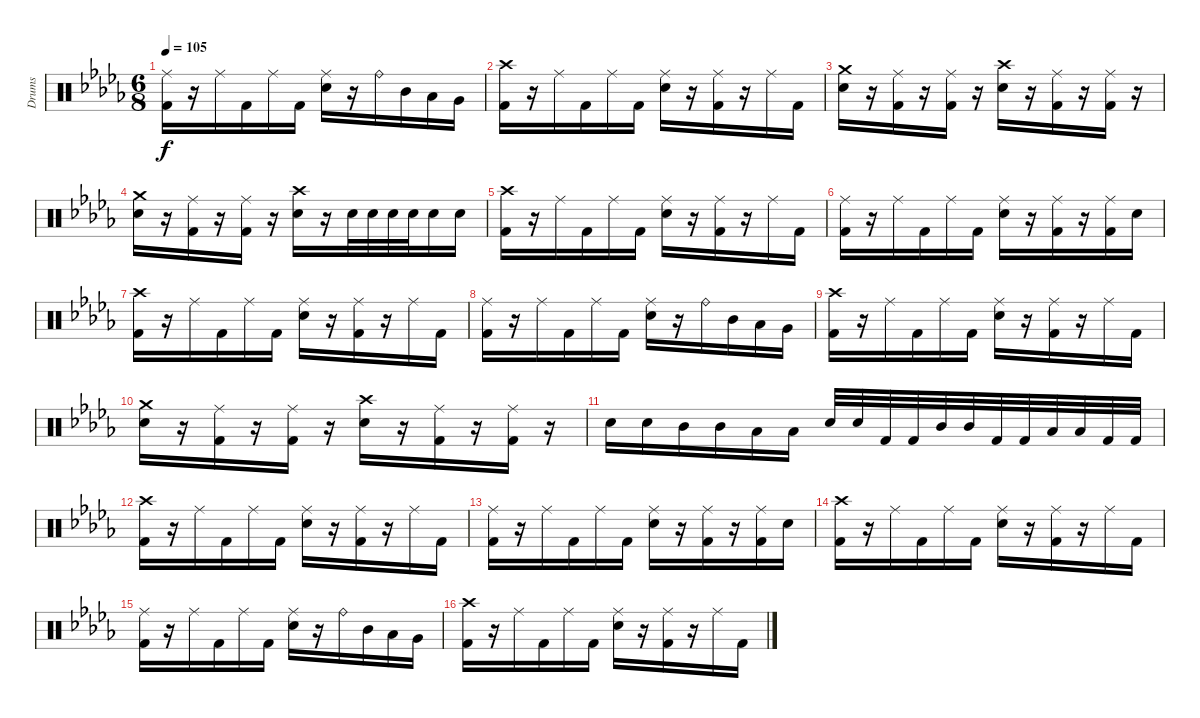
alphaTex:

\track ("Drums" "Drums") {instrument percussion}
\staff {score}
\articulation defaults
\ts (6 8)
\tempo 105
\clef neutral
\ks db
("Ride (middle)" "Kick (hit) 2").16{dy f} r.16 "Ride (middle)".16 "Kick (hit) 2".16 "Ride (middle)".16 "Kick (hit) 2".16 ("Ride (middle)" "Snare (hit) 2").16 r.16 "Ride (bell)".16 "Mid Tom (hit)".16 "Low Tom (hit)".16 "Very Low Tom (hit)".16 |
("Crash high (hit)" "Kick (hit) 2").16 r.16 "Ride (middle)".16 "Kick (hit) 2".16 "Ride (middle)".16 "Kick (hit) 2".16 ("Ride (middle)" "Snare (hit) 2").16 r.16 ("Ride (middle)" "Kick (hit) 2").16 r.16 "Ride (middle)".16 "Kick (hit) 2".16 |
("Crash medium (hit)" "Snare (hit) 2").16 r.16 ("Ride (middle)" "Kick (hit) 2").16 r.16 ("Ride (middle)" "Kick (hit) 2").16 r.16 ("Crash high (hit)" "Snare (hit) 2").16 r.16 ("Ride (middle)" "Kick (hit) 2").16 r.16 ("Ride (middle)" "Kick (hit) 2").16 r.16 |
("Crash medium (hit)" "Snare (hit) 2").16 r.16 ("Ride (middle)" "Kick (hit) 2").16 r.16 ("Ride (middle)" "Kick (hit) 2").16 r.16 ("Crash high (hit)" "Snare (hit) 2").16 r.16 "Snare (hit) 2".32 "Snare (hit) 2".32 "Snare (hit) 2".32 "Snare (hit) 2".32 "Snare (hit) 2".16 "Snare (hit) 2".16 |
("Crash high (hit)" "Kick (hit) 2").16 r.16 "Ride (middle)".16 "Kick (hit) 2".16 "Ride (middle)".16 "Kick (hit) 2".16 ("Ride (middle)" "Snare (hit) 2").16 r.16 ("Ride (middle)" "Kick (hit) 2").16 r.16 "Ride (middle)".16 "Kick (hit) 2".16 |
("Ride (middle)" "Kick (hit) 2").16 r.16 "Ride (middle)".16 "Kick (hit) 2".16 "Ride (middle)".16 "Kick (hit) 2".16 ("Ride (middle)" "Snare (hit) 2").16 r.16 ("Ride (middle)" "Kick (hit) 2").16 r.16 ("Ride (middle)" "Kick (hit) 2").16 "Snare (hit) 2".16 |
("Crash high (hit)" "Kick (hit) 2").16 r.16 "Ride (middle)".16 "Kick (hit) 2".16 "Ride (middle)".16 "Kick (hit) 2".16 ("Ride (middle)" "Snare (hit) 2").16 r.16 ("Ride (middle)" "Kick (hit) 2").16 r.16 "Ride (middle)".16 "Kick (hit) 2".16 |
("Ride (middle)" "Kick (hit) 2").16 r.16 "Ride (middle)".16 "Kick (hit) 2".16 "Ride (middle)".16 "Kick (hit) 2".16 ("Ride (middle)" "Snare (hit) 2").16 r.16 "Ride (bell)".16 "Mid Tom (hit)".16 "Low Tom (hit)".16 "Very Low Tom (hit)".16 |
("Crash high (hit)" "Kick (hit) 2").16 r.16 "Ride (middle)".16 "Kick (hit) 2".16 "Ride (middle)".16 "Kick (hit) 2".16 ("Ride (middle)" "Snare (hit) 2").16 r.16 ("Ride (middle)" "Kick (hit) 2").16 r.16 "Ride (middle)".16 "Kick (hit) 2".16 |
("Crash medium (hit)" "Snare (hit) 2").16 r.16 ("Ride (middle)" "Kick (hit) 2").16 r.16 ("Ride (middle)" "Kick (hit) 2").16 r.16 ("Crash high (hit)" "Snare (hit) 2").16 r.16 ("Ride (middle)" "Kick (hit) 2").16 r.16 ("Ride (middle)" "Kick (hit) 2").16 r.16 |
"Snare (hit) 2".16 "Snare (hit) 2".16 "Mid Tom (hit)".16 "Mid Tom (hit)".16 "Low Tom (hit)".16 "Low Tom (hit)".16 "Snare (hit) 2".32 "Snare (hit) 2".32 "Kick (hit) 2".32 "Kick (hit) 2".32 "Mid Tom (hit)".32 "Mid Tom (hit)".32 "Kick (hit) 2".32 "Kick (hit) 2".32 "Low Tom (hit)".32 "Low Tom (hit)".32 "Kick (hit) 2".32 "Kick (hit) 2".32 |
("Crash high (hit)" "Kick (hit) 2").16 r.16 "Ride (middle)".16 "Kick (hit) 2".16 "Ride (middle)".16 "Kick (hit) 2".16 ("Ride (middle)" "Snare (hit) 2").16 r.16 ("Ride (middle)" "Kick (hit) 2").16 r.16 "Ride (middle)".16 "Kick (hit) 2".16 |
("Ride (middle)" "Kick (hit) 2").16 r.16 "Ride (middle)".16 "Kick (hit) 2".16 "Ride (middle)".16 "Kick (hit) 2".16 ("Ride (middle)" "Snare (hit) 2").16 r.16 ("Ride (middle)" "Kick (hit) 2").16 r.16 ("Ride (middle)" "Kick (hit) 2").16 "Snare (hit) 2".16 |
("Crash high (hit)" "Kick (hit) 2").16 r.16 "Ride (middle)".16 "Kick (hit) 2".16 "Ride (middle)".16 "Kick (hit) 2".16 ("Ride (middle)" "Snare (hit) 2").16 r.16 ("Ride (middle)" "Kick (hit) 2").16 r.16 "Ride (middle)".16 "Kick (hit) 2".16 |
("Ride (middle)" "Kick (hit) 2").16 r.16 "Ride (middle)".16 "Kick (hit) 2".16 "Ride (middle)".16 "Kick (hit) 2".16 ("Ride (middle)" "Snare (hit) 2").16 r.16 "Ride (bell)".16 "Mid Tom (hit)".16 "Low Tom (hit)".16 "Very Low Tom (hit)".16 |
("Crash high (hit)" "Kick (hit) 2").16 r.16 "Ride (middle)".16 "Kick (hit) 2".16 "Ride (middle)".16 "Kick (hit) 2".16 ("Ride (middle)" "Snare (hit) 2").16 r.16 ("Ride (middle)" "Kick (hit) 2").16 r.16 "Ride (middle)".16 "Kick (hit) 2".16
